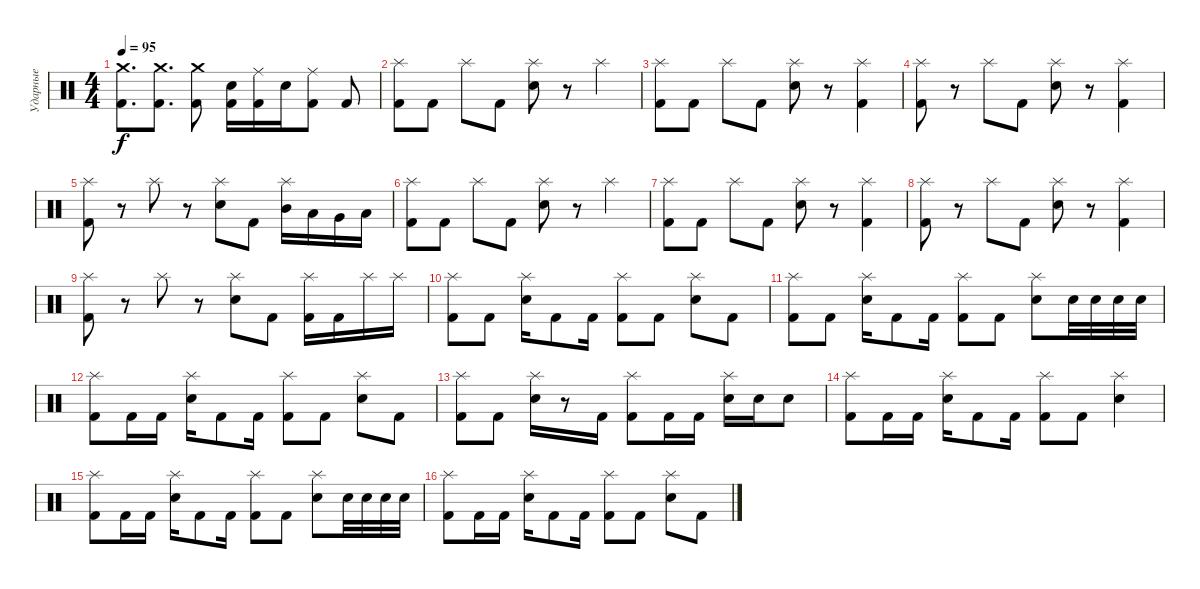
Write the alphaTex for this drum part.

\track ("Ударные" "Ударные") {instrument percussion}
\staff {score}
\articulation defaults
\ts (4 4)
\tempo 95
\clef neutral
\ks c
("Crash medium (hit)" "Kick (hit) 2").8{d dy f} ("Crash medium (hit)" "Kick (hit) 2").8{d} ("Crash medium (hit)" "Kick (hit) 2").8 ("Electric Snare (hit)" "Kick (hit) 2").16 ("Ride (middle)" "Kick (hit) 2").16 "Snare (hit)".16 ("Ride (middle)" "Kick (hit) 2").8 "Kick (hit) 2".8 |
("Splash (hit)" "Kick (hit) 2").8 "Kick (hit) 2".8 "Splash (hit)".8 "Kick (hit) 2".8 ("Splash (hit)" "Electric Snare (hit)").8 r.8 "Splash (hit)".4 |
("Splash (hit)" "Kick (hit) 2").8 "Kick (hit) 2".8 "Splash (hit)".8 "Kick (hit) 2".8 ("Splash (hit)" "Electric Snare (hit)").8 r.8 ("Splash (hit)" "Kick (hit) 2").4 |
("Splash (hit)" "Kick (hit) 2").8 r.8 "Splash (hit)".8 "Kick (hit) 2".8 ("Splash (hit)" "Electric Snare (hit)").8 r.8 ("Splash (hit)" "Kick (hit) 2").4 |
("Splash (hit)" "Kick (hit) 2").8 r.8 "Splash (hit)".8 r.8 ("Splash (hit)" "Electric Snare (hit)").8 "Kick (hit) 2".8 ("Mid Tom (hit)" "Splash (hit)").16 "Low Tom (hit)".16 "Very Low Tom (hit)".16 "Low Floor Tom (hit)".16 |
("Splash (hit)" "Kick (hit) 2").8 "Kick (hit) 2".8 "Splash (hit)".8 "Kick (hit) 2".8 ("Splash (hit)" "Electric Snare (hit)").8 r.8 "Splash (hit)".4 |
("Splash (hit)" "Kick (hit) 2").8 "Kick (hit) 2".8 "Splash (hit)".8 "Kick (hit) 2".8 ("Splash (hit)" "Electric Snare (hit)").8 r.8 ("Splash (hit)" "Kick (hit) 2").4 |
("Splash (hit)" "Kick (hit) 2").8 r.8 "Splash (hit)".8 "Kick (hit) 2".8 ("Splash (hit)" "Electric Snare (hit)").8 r.8 ("Splash (hit)" "Kick (hit) 2").4 |
("Splash (hit)" "Kick (hit) 2").8 r.8 "Splash (hit)".8 r.8 ("Splash (hit)" "Electric Snare (hit)").8 "Kick (hit) 2".8 ("Kick (hit) 2" "Splash (hit)").16 "Kick (hit) 2".16 "Splash (hit)".16 "Splash (hit)".16 |
("Splash (hit)" "Kick (hit) 2").8 "Kick (hit) 2".8 ("Splash (hit)" "Electric Snare (hit)").16 "Kick (hit) 2".8 "Kick (hit) 2".16 ("Splash (hit)" "Kick (hit) 2").8 "Kick (hit) 2".8 ("Splash (hit)" "Electric Snare (hit)").8 "Kick (hit) 2".8 |
("Splash (hit)" "Kick (hit) 2").8 "Kick (hit) 2".8 ("Splash (hit)" "Electric Snare (hit)").16 "Kick (hit) 2".8 "Kick (hit) 2".16 ("Splash (hit)" "Kick (hit) 2").8 "Kick (hit) 2".8 ("Splash (hit)" "Electric Snare (hit)").8 "Electric Snare (hit)".32 "Electric Snare (hit)".32 "Electric Snare (hit)".32 "Electric Snare (hit)".32 |
("Splash (hit)" "Kick (hit) 2").8 "Kick (hit) 2".16 "Kick (hit) 2".16 ("Splash (hit)" "Electric Snare (hit)").16 "Kick (hit) 2".8 "Kick (hit) 2".16 ("Splash (hit)" "Kick (hit) 2").8 "Kick (hit) 2".8 ("Splash (hit)" "Electric Snare (hit)").8 "Kick (hit) 2".8 |
("Splash (hit)" "Kick (hit) 2").8 "Kick (hit) 2".8 ("Splash (hit)" "Electric Snare (hit)").16 r.8 "Kick (hit) 2".16 ("Splash (hit)" "Kick (hit) 2").8 "Kick (hit) 2".16 "Kick (hit) 2".16 ("Splash (hit)" "Electric Snare (hit)").16 "Electric Snare (hit)".16 "Electric Snare (hit)".8 |
("Splash (hit)" "Kick (hit) 2").8 "Kick (hit) 2".16 "Kick (hit) 2".16 ("Splash (hit)" "Electric Snare (hit)").16 "Kick (hit) 2".8 "Kick (hit) 2".16 ("Splash (hit)" "Kick (hit) 2").8 "Kick (hit) 2".8 ("Splash (hit)" "Electric Snare (hit)").4 |
("Splash (hit)" "Kick (hit) 2").8 "Kick (hit) 2".16 "Kick (hit) 2".16 ("Splash (hit)" "Electric Snare (hit)").16 "Kick (hit) 2".8 "Kick (hit) 2".16 ("Splash (hit)" "Kick (hit) 2").8 "Kick (hit) 2".8 ("Splash (hit)" "Electric Snare (hit)").8 "Electric Snare (hit)".32 "Electric Snare (hit)".32 "Electric Snare (hit)".32 "Electric Snare (hit)".32 |
("Splash (hit)" "Kick (hit) 2").8 "Kick (hit) 2".16 "Kick (hit) 2".16 ("Splash (hit)" "Electric Snare (hit)").16 "Kick (hit) 2".8 "Kick (hit) 2".16 ("Splash (hit)" "Kick (hit) 2").8 "Kick (hit) 2".8 ("Splash (hit)" "Electric Snare (hit)").8 "Kick (hit) 2".8
